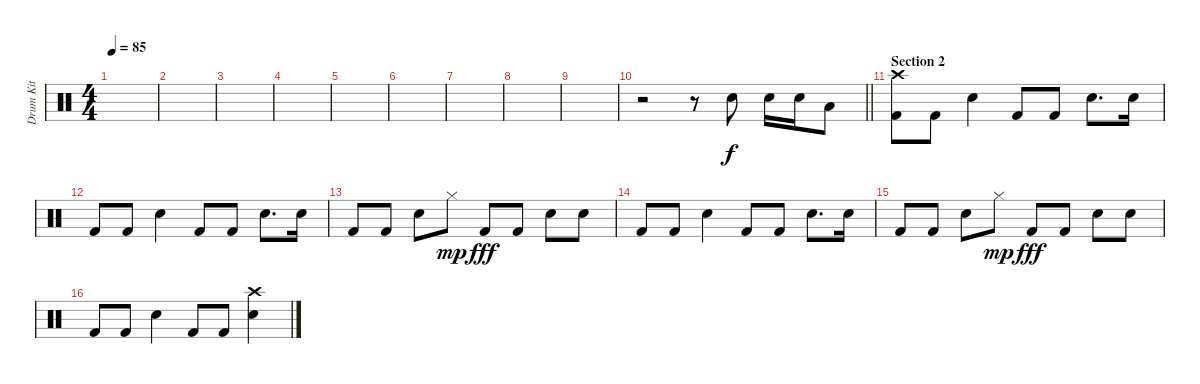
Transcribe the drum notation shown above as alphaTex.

\track ("Drum Kit" "Drum Kit") {instrument percussion}
\staff {score}
\articulation defaults
\ts (4 4)
\tempo 85
\clef neutral
\ks c
|
|
|
|
|
|
|
|
|
\barLineRight lightlight
r.2 r.8 "Snare (hit) 2".8 "Snare (hit) 2".16 "Snare (hit) 2".16 "Low Tom (hit)".8 |
\section ("" "Section 2")
("Crash high (hit)" "Kick (hit) 2").8 "Kick (hit) 2".8 "Snare (hit) 2".4 "Kick (hit) 2".8 "Kick (hit) 2".8 "Snare (hit) 2".8{d} "Snare (hit) 2".16 |
"Kick (hit) 2".8 "Kick (hit) 2".8 "Snare (hit) 2".4 "Kick (hit) 2".8 "Kick (hit) 2".8 "Snare (hit) 2".8{d} "Snare (hit) 2".16 |
"Kick (hit) 2".8 "Kick (hit) 2".8 "Snare (hit) 2".8 "Hi-Hat (closed)".8{dy mp} "Kick (hit) 2".8{dy fff} "Kick (hit) 2".8 "Snare (hit) 2".8 "Snare (hit) 2".8 |
"Kick (hit) 2".8 "Kick (hit) 2".8 "Snare (hit) 2".4 "Kick (hit) 2".8 "Kick (hit) 2".8 "Snare (hit) 2".8{d} "Snare (hit) 2".16 |
"Kick (hit) 2".8 "Kick (hit) 2".8 "Snare (hit) 2".8 "Hi-Hat (closed)".8{dy mp} "Kick (hit) 2".8{dy fff} "Kick (hit) 2".8 "Snare (hit) 2".8 "Snare (hit) 2".8 |
"Kick (hit) 2".8 "Kick (hit) 2".8 "Snare (hit) 2".4 "Kick (hit) 2".8 "Kick (hit) 2".8 ("Crash high (hit)" "Snare (hit) 2").4
